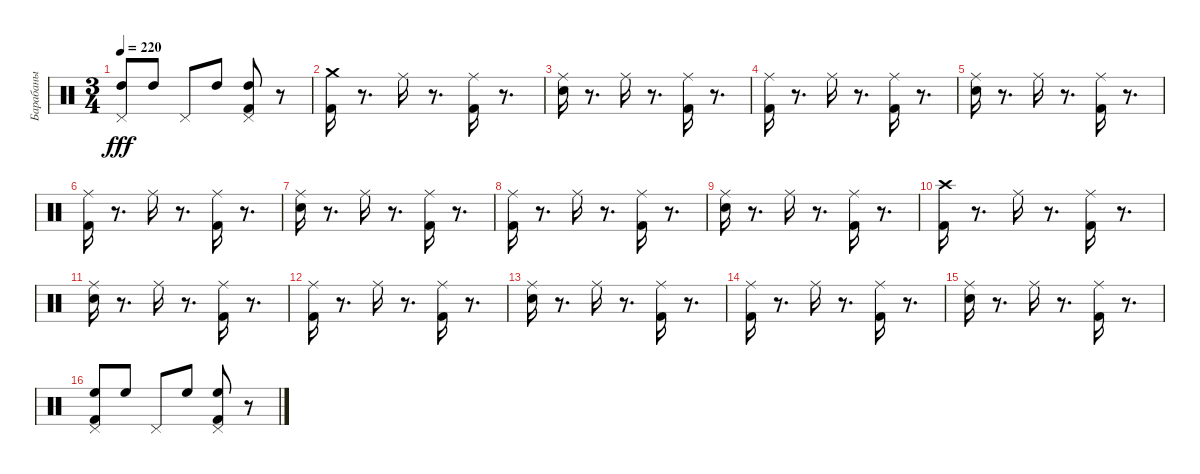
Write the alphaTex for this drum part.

\track ("Барабаны" "Барабаны") {instrument percussion}
\staff {score}
\articulation defaults
\ts (3 4)
\tempo 220
\clef neutral
\ks c
("Pedal Hi-Hat (hit)" "High Tom (hit)").8{dy fff} "High Tom (hit)".8 "Pedal Hi-Hat (hit)".8 "High Tom (hit)".8 ("Pedal Hi-Hat (hit)" "High Tom (hit)" "Kick (hit) 2").8 r.8 |
("Crash medium (hit)" "Kick (hit) 2").16 r.8{d} "Ride (middle)".16 r.8{d} ("Ride (middle)" "Kick (hit) 2").16 r.8{d} |
("Ride (middle)" "Snare (hit) 2").16 r.8{d} "Ride (middle)".16 r.8{d} ("Kick (hit) 2" "Ride (middle)").16 r.8{d} |
("Ride (middle)" "Kick (hit) 2").16 r.8{d} "Ride (middle)".16 r.8{d} ("Ride (middle)" "Kick (hit) 2").16 r.8{d} |
("Ride (middle)" "Snare (hit) 2").16 r.8{d} "Ride (middle)".16 r.8{d} ("Ride (middle)" "Kick (hit) 2").16 r.8{d} |
("Ride (middle)" "Kick (hit) 2").16 r.8{d} "Ride (middle)".16 r.8{d} ("Ride (middle)" "Kick (hit) 2").16 r.8{d} |
("Snare (hit) 2" "Ride (middle)").16 r.8{d} "Ride (middle)".16 r.8{d} ("Kick (hit) 2" "Ride (middle)").16 r.8{d} |
("Kick (hit) 2" "Ride (middle)").16 r.8{d} "Ride (middle)".16 r.8{d} ("Kick (hit) 2" "Ride (middle)").16 r.8{d} |
("Ride (middle)" "Snare (hit) 2").16 r.8{d} "Ride (middle)".16 r.8{d} ("Kick (hit) 2" "Ride (middle)").16 r.8{d} |
("Kick (hit) 2" "Crash high (hit)").16 r.8{d} "Ride (middle)".16 r.8{d} ("Kick (hit) 2" "Ride (middle)").16 r.8{d} |
("Snare (hit) 2" "Ride (middle)").16 r.8{d} "Ride (middle)".16 r.8{d} ("Ride (middle)" "Kick (hit) 2").16 r.8{d} |
("Kick (hit) 2" "Ride (middle)").16 r.8{d} "Ride (middle)".16 r.8{d} ("Ride (middle)" "Kick (hit) 2").16 r.8{d} |
("Snare (hit) 2" "Ride (middle)").16 r.8{d} "Ride (middle)".16 r.8{d} ("Kick (hit) 2" "Ride (middle)").16 r.8{d} |
("Ride (middle)" "Kick (hit) 2").16 r.8{d} "Ride (middle)".16 r.8{d} ("Kick (hit) 2" "Ride (middle)").16 r.8{d} |
("Snare (hit) 2" "Ride (middle)").16 r.8{d} "Ride (middle)".16 r.8{d} ("Ride (middle)" "Kick (hit) 2").16 r.8{d} |
("Pedal Hi-Hat (hit)" "High Floor Tom (hit)" "Kick (hit) 2").8 "High Floor Tom (hit)".8 "Pedal Hi-Hat (hit)".8 "High Floor Tom (hit)".8 ("Pedal Hi-Hat (hit)" "High Floor Tom (hit)" "Kick (hit) 2").8 r.8
